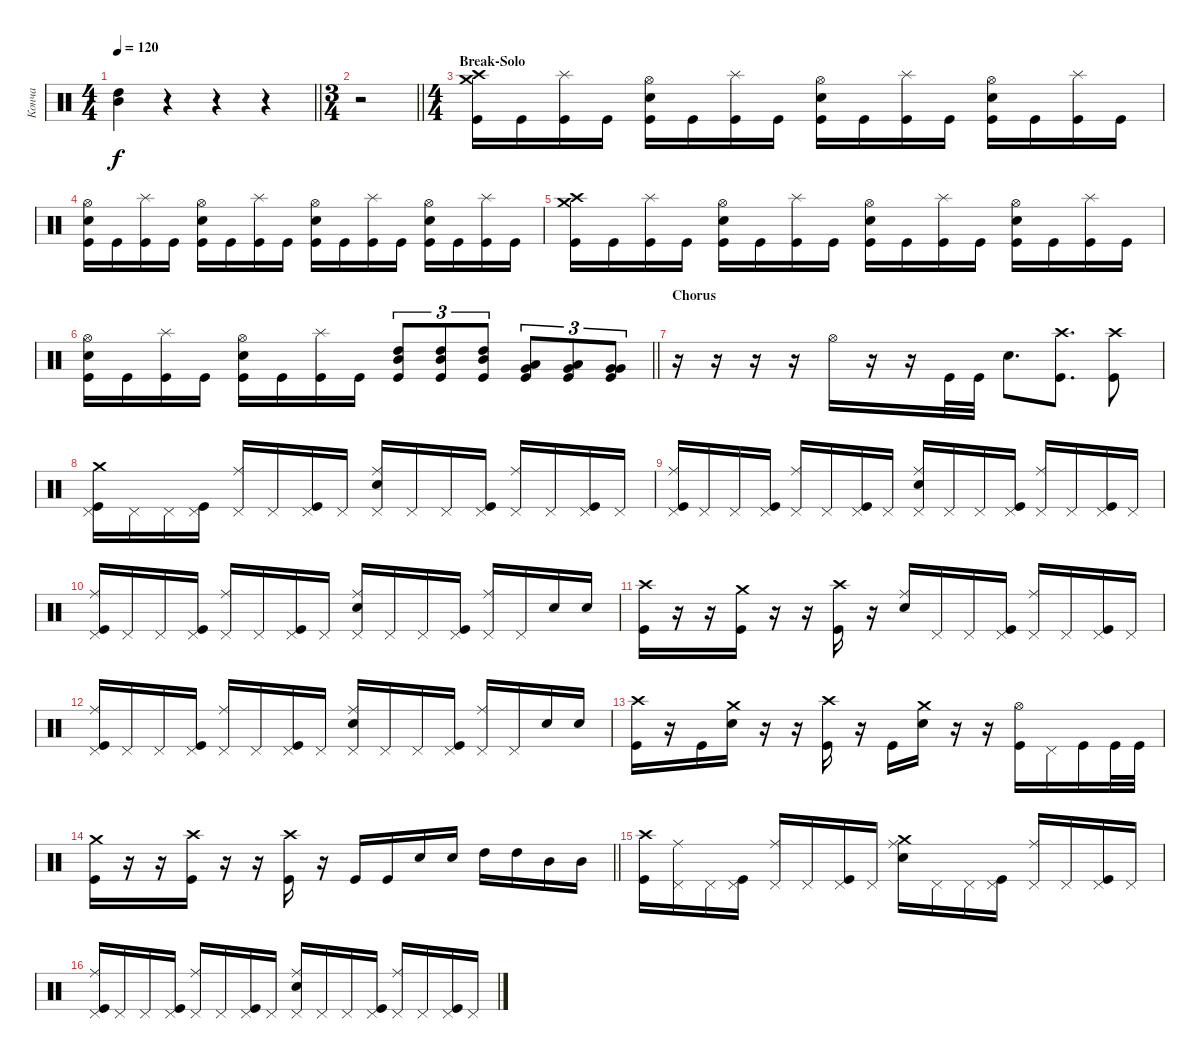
\track ("Конча" "Конча") {instrument percussion}
\staff {score}
\articulation defaults
\ts (4 4)
\tempo 120
\clef neutral
\barLineRight lightlight
\ks c
("High Tom (hit)" "Mid Tom (hit)").4{dy f} r.4 r.4 r.4 |
\ts (3 4)
\barLineRight lightlight
r.2 |
\ts (4 4)
\section ("" "Break-Solo")
("Crash medium (hit)" "Kick (hit)" "Crash high (hit)").16 "Kick (hit)".16 ("Splash (hit)" "Kick (hit)").16 "Kick (hit)".16 ("Electric Snare (hit)" "Hi-Hat (open)" "Kick (hit)").16 "Kick (hit)".16 ("Splash (hit)" "Kick (hit)").16 "Kick (hit)".16 ("Electric Snare (hit)" "Hi-Hat (open)" "Kick (hit)").16 "Kick (hit)".16 ("Splash (hit)" "Kick (hit)").16 "Kick (hit)".16 ("Electric Snare (hit)" "Hi-Hat (open)" "Kick (hit)").16 "Kick (hit)".16 ("Splash (hit)" "Kick (hit)").16 "Kick (hit)".16 |
("Electric Snare (hit)" "Hi-Hat (open)" "Kick (hit)").16 "Kick (hit)".16 ("Splash (hit)" "Kick (hit)").16 "Kick (hit)".16 ("Electric Snare (hit)" "Hi-Hat (open)" "Kick (hit)").16 "Kick (hit)".16 ("Splash (hit)" "Kick (hit)").16 "Kick (hit)".16 ("Electric Snare (hit)" "Hi-Hat (open)" "Kick (hit)").16 "Kick (hit)".16 ("Splash (hit)" "Kick (hit)").16 "Kick (hit)".16 ("Electric Snare (hit)" "Hi-Hat (open)" "Kick (hit)").16 "Kick (hit)".16 ("Splash (hit)" "Kick (hit)").16 "Kick (hit)".16 |
("Crash medium (hit)" "Kick (hit)" "Crash high (hit)").16 "Kick (hit)".16 ("Splash (hit)" "Kick (hit)").16 "Kick (hit)".16 ("Electric Snare (hit)" "Hi-Hat (open)" "Kick (hit)").16 "Kick (hit)".16 ("Splash (hit)" "Kick (hit)").16 "Kick (hit)".16 ("Electric Snare (hit)" "Hi-Hat (open)" "Kick (hit)").16 "Kick (hit)".16 ("Splash (hit)" "Kick (hit)").16 "Kick (hit)".16 ("Electric Snare (hit)" "Hi-Hat (open)" "Kick (hit)").16 "Kick (hit)".16 ("Splash (hit)" "Kick (hit)").16 "Kick (hit)".16 |
\barLineRight lightlight
("Hi-Hat (open)" "Electric Snare (hit)" "Kick (hit)").16 "Kick (hit)".16 ("Splash (hit)" "Kick (hit)").16 "Kick (hit)".16 ("Hi-Hat (open)" "Electric Snare (hit)" "Kick (hit)").16 "Kick (hit)".16 ("Splash (hit)" "Kick (hit)").16 "Kick (hit)".16 ("High Tom (hit)" "Kick (hit)" "Mid Tom (hit)").8{tu (3 2)} ("High Tom (hit)" "Kick (hit)" "Mid Tom (hit)").8{tu (3 2)} ("High Tom (hit)" "Kick (hit)" "Mid Tom (hit)").8{tu (3 2)} ("Low Tom (hit)" "Kick (hit)" "Very Low Tom (hit)").8{tu (3 2)} ("Low Tom (hit)" "Kick (hit)" "Very Low Tom (hit)").8{tu (3 2)} ("Very Low Tom (hit)" "Kick (hit)" "Very Low Tom (hit)").8{tu (3 2)} |
\section ("" "Chorus")
r.16 r.16 r.16 r.16 "Hi-Hat (open)".16 r.16 r.16 "Kick (hit)".32 "Kick (hit)".32 "Electric Snare (hit)".8{d} ("Crash high (hit)" "Kick (hit)").8{d} ("Crash high (hit)" "Kick (hit)").8 |
("Crash medium (hit)" "Pedal Hi-Hat (hit)" "Kick (hit)").16 "Pedal Hi-Hat (hit)".16 "Pedal Hi-Hat (hit)".16 ("Pedal Hi-Hat (hit)" "Kick (hit)").16 ("Ride (middle)" "Pedal Hi-Hat (hit)").16 "Pedal Hi-Hat (hit)".16 ("Pedal Hi-Hat (hit)" "Kick (hit)").16 "Pedal Hi-Hat (hit)".16 ("Ride (middle)" "Pedal Hi-Hat (hit)" "Electric Snare (hit)").16 "Pedal Hi-Hat (hit)".16 "Pedal Hi-Hat (hit)".16 ("Pedal Hi-Hat (hit)" "Kick (hit)").16 ("Ride (middle)" "Pedal Hi-Hat (hit)").16 "Pedal Hi-Hat (hit)".16 ("Pedal Hi-Hat (hit)" "Kick (hit)").16 "Pedal Hi-Hat (hit)".16 |
("Ride (middle)" "Pedal Hi-Hat (hit)" "Kick (hit)").16 "Pedal Hi-Hat (hit)".16 "Pedal Hi-Hat (hit)".16 ("Pedal Hi-Hat (hit)" "Kick (hit)").16 ("Ride (middle)" "Pedal Hi-Hat (hit)").16 "Pedal Hi-Hat (hit)".16 ("Pedal Hi-Hat (hit)" "Kick (hit)").16 "Pedal Hi-Hat (hit)".16 ("Ride (middle)" "Pedal Hi-Hat (hit)" "Electric Snare (hit)").16 "Pedal Hi-Hat (hit)".16 "Pedal Hi-Hat (hit)".16 ("Pedal Hi-Hat (hit)" "Kick (hit)").16 ("Ride (middle)" "Pedal Hi-Hat (hit)").16 "Pedal Hi-Hat (hit)".16 ("Pedal Hi-Hat (hit)" "Kick (hit)").16 "Pedal Hi-Hat (hit)".16 |
("Ride (middle)" "Pedal Hi-Hat (hit)" "Kick (hit)").16 "Pedal Hi-Hat (hit)".16 "Pedal Hi-Hat (hit)".16 ("Pedal Hi-Hat (hit)" "Kick (hit)").16 ("Ride (middle)" "Pedal Hi-Hat (hit)").16 "Pedal Hi-Hat (hit)".16 ("Pedal Hi-Hat (hit)" "Kick (hit)").16 "Pedal Hi-Hat (hit)".16 ("Ride (middle)" "Pedal Hi-Hat (hit)" "Electric Snare (hit)").16 "Pedal Hi-Hat (hit)".16 "Pedal Hi-Hat (hit)".16 ("Pedal Hi-Hat (hit)" "Kick (hit)").16 ("Ride (middle)" "Pedal Hi-Hat (hit)").16 "Pedal Hi-Hat (hit)".16 "Electric Snare (hit)".16 "Electric Snare (hit)".16 |
("Crash high (hit)" "Kick (hit)").16 r.16 r.16 ("Crash medium (hit)" "Kick (hit)").16 r.16 r.16 ("Crash high (hit)" "Kick (hit)").16 r.16 ("Ride (middle)" "Electric Snare (hit)").16 "Pedal Hi-Hat (hit)".16 "Pedal Hi-Hat (hit)".16 ("Pedal Hi-Hat (hit)" "Kick (hit)").16 ("Pedal Hi-Hat (hit)" "Ride (middle)").16 "Pedal Hi-Hat (hit)".16 ("Pedal Hi-Hat (hit)" "Kick (hit)").16 "Pedal Hi-Hat (hit)".16 |
("Ride (middle)" "Pedal Hi-Hat (hit)" "Kick (hit)").16 "Pedal Hi-Hat (hit)".16 "Pedal Hi-Hat (hit)".16 ("Pedal Hi-Hat (hit)" "Kick (hit)").16 ("Ride (middle)" "Pedal Hi-Hat (hit)").16 "Pedal Hi-Hat (hit)".16 ("Pedal Hi-Hat (hit)" "Kick (hit)").16 "Pedal Hi-Hat (hit)".16 ("Ride (middle)" "Pedal Hi-Hat (hit)" "Electric Snare (hit)").16 "Pedal Hi-Hat (hit)".16 "Pedal Hi-Hat (hit)".16 ("Pedal Hi-Hat (hit)" "Kick (hit)").16 ("Ride (middle)" "Pedal Hi-Hat (hit)").16 "Pedal Hi-Hat (hit)".16 "Electric Snare (hit)".16 "Electric Snare (hit)".16 |
("Crash high (hit)" "Kick (hit)").16 r.16 "Kick (hit)".16 ("Crash medium (hit)" "Electric Snare (hit)").16 r.16 r.16 ("Crash high (hit)" "Kick (hit)").16 r.16 "Kick (hit)".16 ("Crash medium (hit)" "Electric Snare (hit)").16 r.16 r.16 ("Hi-Hat (open)" "Kick (hit)").16 "Pedal Hi-Hat (hit)".16 "Kick (hit)".16 "Kick (hit)".32 "Kick (hit)".32 |
\barLineRight lightlight
("Crash medium (hit)" "Kick (hit)").16 r.16 r.16 ("Crash high (hit)" "Kick (hit)").16 r.16 r.16 ("Crash high (hit)" "Kick (hit)").16 r.16 "Kick (hit)".16 "Kick (hit)".16 "Electric Snare (hit)".16 "Electric Snare (hit)".16 "High Tom (hit)".16 "High Tom (hit)".16 "Mid Tom (hit)".16 "Mid Tom (hit)".16 |
("Crash high (hit)" "Kick (hit)").16 ("Ride (middle)" "Pedal Hi-Hat (hit)").16 "Pedal Hi-Hat (hit)".16 ("Pedal Hi-Hat (hit)" "Kick (hit)").16 ("Ride (middle)" "Pedal Hi-Hat (hit)").16 "Pedal Hi-Hat (hit)".16 ("Pedal Hi-Hat (hit)" "Kick (hit)").16 "Pedal Hi-Hat (hit)".16 ("Ride (middle)" "Crash medium (hit)" "Electric Snare (hit)").16 "Pedal Hi-Hat (hit)".16 "Pedal Hi-Hat (hit)".16 ("Pedal Hi-Hat (hit)" "Kick (hit)").16 ("Ride (middle)" "Pedal Hi-Hat (hit)").16 "Pedal Hi-Hat (hit)".16 ("Pedal Hi-Hat (hit)" "Kick (hit)").16 "Pedal Hi-Hat (hit)".16 |
("Ride (middle)" "Pedal Hi-Hat (hit)" "Kick (hit)").16 "Pedal Hi-Hat (hit)".16 "Pedal Hi-Hat (hit)".16 ("Pedal Hi-Hat (hit)" "Kick (hit)").16 ("Ride (middle)" "Pedal Hi-Hat (hit)").16 "Pedal Hi-Hat (hit)".16 ("Pedal Hi-Hat (hit)" "Kick (hit)").16 "Pedal Hi-Hat (hit)".16 ("Ride (middle)" "Pedal Hi-Hat (hit)" "Electric Snare (hit)").16 "Pedal Hi-Hat (hit)".16 "Pedal Hi-Hat (hit)".16 ("Pedal Hi-Hat (hit)" "Kick (hit)").16 ("Ride (middle)" "Pedal Hi-Hat (hit)").16 "Pedal Hi-Hat (hit)".16 ("Pedal Hi-Hat (hit)" "Kick (hit)").16 "Pedal Hi-Hat (hit)".16
